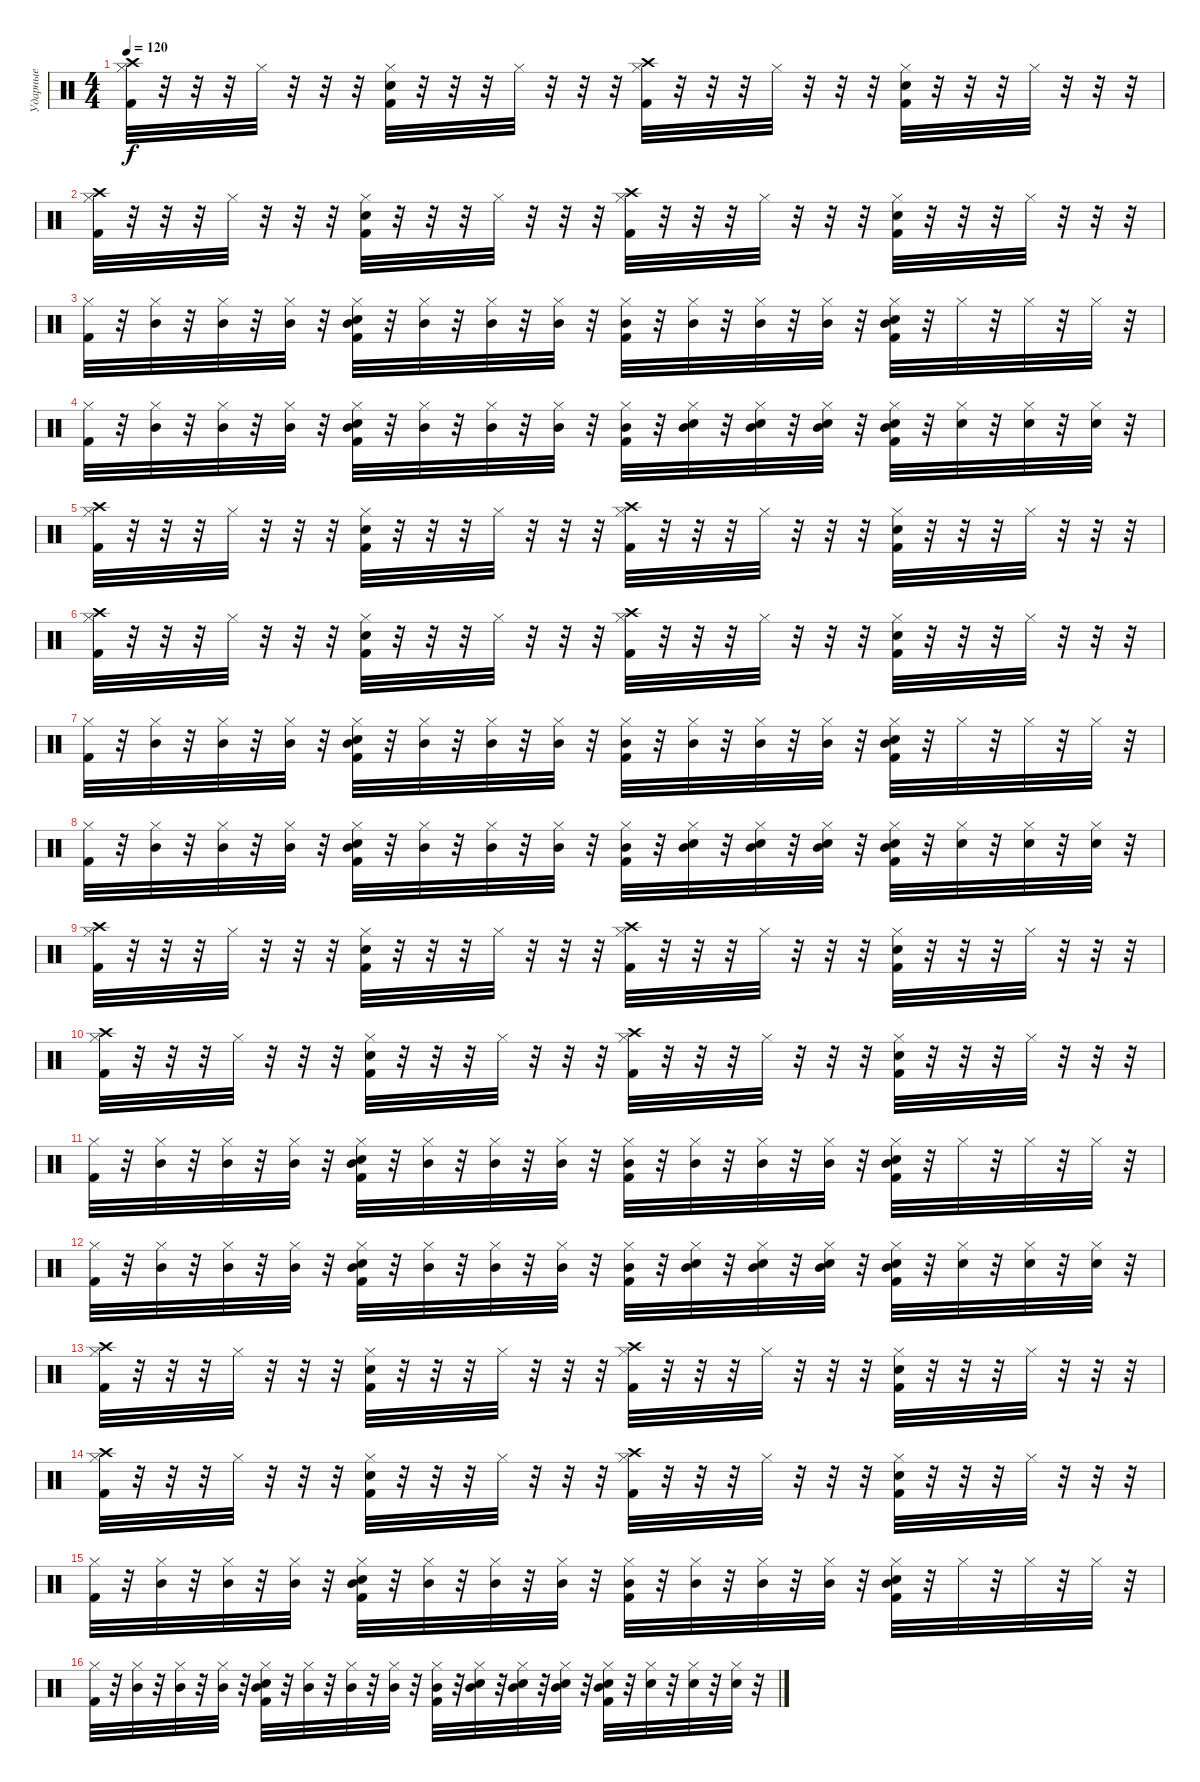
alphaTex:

\track ("Ударные" "Ударные") {instrument percussion}
\staff {score}
\articulation defaults
\ts (4 4)
\tempo 120
\clef neutral
\ks c
("Crash high (hit)" "Hi-Hat (closed)" "Kick (hit) 2").32{dy f} r.32 r.32 r.32 "Hi-Hat (closed)".32 r.32 r.32 r.32 ("Hi-Hat (closed)" "Kick (hit) 2" "Snare (hit) 2").32 r.32 r.32 r.32 "Hi-Hat (closed)".32 r.32 r.32 r.32 ("Crash high (hit)" "Hi-Hat (closed)" "Kick (hit) 2").32 r.32 r.32 r.32 "Hi-Hat (closed)".32 r.32 r.32 r.32 ("Snare (hit) 2" "Kick (hit) 2" "Hi-Hat (closed)").32 r.32 r.32 r.32 "Hi-Hat (closed)".32 r.32 r.32 r.32 |
("Crash high (hit)" "Hi-Hat (closed)" "Kick (hit) 2").32 r.32 r.32 r.32 "Hi-Hat (closed)".32 r.32 r.32 r.32 ("Hi-Hat (closed)" "Kick (hit) 2" "Snare (hit) 2").32 r.32 r.32 r.32 "Hi-Hat (closed)".32 r.32 r.32 r.32 ("Crash high (hit)" "Hi-Hat (closed)" "Kick (hit) 2").32 r.32 r.32 r.32 "Hi-Hat (closed)".32 r.32 r.32 r.32 ("Snare (hit) 2" "Kick (hit) 2" "Hi-Hat (closed)").32 r.32 r.32 r.32 "Hi-Hat (closed)".32 r.32 r.32 r.32 |
("Hi-Hat (closed)" "Kick (hit) 2").32 r.32 ("Hi-Hat (closed)" "Mid Tom (hit)").32 r.32 ("Hi-Hat (closed)" "Mid Tom (hit)").32 r.32 ("Hi-Hat (closed)" "Mid Tom (hit)").32 r.32 ("Hi-Hat (closed)" "Kick (hit) 2" "Snare (hit) 2" "Mid Tom (hit)").32 r.32 ("Hi-Hat (closed)" "Mid Tom (hit)").32 r.32 ("Hi-Hat (closed)" "Mid Tom (hit)").32 r.32 ("Hi-Hat (closed)" "Mid Tom (hit)").32 r.32 ("Hi-Hat (closed)" "Kick (hit) 2" "Mid Tom (hit)").32 r.32 ("Hi-Hat (closed)" "Mid Tom (hit)").32 r.32 ("Hi-Hat (closed)" "Mid Tom (hit)").32 r.32 ("Hi-Hat (closed)" "Mid Tom (hit)").32 r.32 ("Snare (hit) 2" "Kick (hit) 2" "Hi-Hat (closed)" "Mid Tom (hit)").32 r.32 "Hi-Hat (closed)".32 r.32 "Hi-Hat (closed)".32 r.32 "Hi-Hat (closed)".32 r.32 |
("Hi-Hat (closed)" "Kick (hit) 2").32 r.32 ("Hi-Hat (closed)" "Mid Tom (hit)").32 r.32 ("Hi-Hat (closed)" "Mid Tom (hit)").32 r.32 ("Hi-Hat (closed)" "Mid Tom (hit)").32 r.32 ("Hi-Hat (closed)" "Kick (hit) 2" "Snare (hit) 2" "Mid Tom (hit)").32 r.32 ("Hi-Hat (closed)" "Mid Tom (hit)").32 r.32 ("Hi-Hat (closed)" "Mid Tom (hit)").32 r.32 ("Hi-Hat (closed)" "Mid Tom (hit)").32 r.32 ("Hi-Hat (closed)" "Kick (hit) 2" "Mid Tom (hit)").32 r.32 ("Snare (hit) 2" "Hi-Hat (closed)" "Mid Tom (hit)").32 r.32 ("Snare (hit) 2" "Hi-Hat (closed)" "Mid Tom (hit)").32 r.32 ("Snare (hit) 2" "Hi-Hat (closed)" "Mid Tom (hit)").32 r.32 ("Snare (hit) 2" "Kick (hit) 2" "Hi-Hat (closed)" "Mid Tom (hit)").32 r.32 ("Snare (hit) 2" "Hi-Hat (closed)").32 r.32 ("Snare (hit) 2" "Hi-Hat (closed)").32 r.32 ("Snare (hit) 2" "Hi-Hat (closed)").32 r.32 |
("Crash high (hit)" "Hi-Hat (closed)" "Kick (hit) 2").32 r.32 r.32 r.32 "Hi-Hat (closed)".32 r.32 r.32 r.32 ("Hi-Hat (closed)" "Kick (hit) 2" "Snare (hit) 2").32 r.32 r.32 r.32 "Hi-Hat (closed)".32 r.32 r.32 r.32 ("Crash high (hit)" "Hi-Hat (closed)" "Kick (hit) 2").32 r.32 r.32 r.32 "Hi-Hat (closed)".32 r.32 r.32 r.32 ("Snare (hit) 2" "Kick (hit) 2" "Hi-Hat (closed)").32 r.32 r.32 r.32 "Hi-Hat (closed)".32 r.32 r.32 r.32 |
("Crash high (hit)" "Hi-Hat (closed)" "Kick (hit) 2").32 r.32 r.32 r.32 "Hi-Hat (closed)".32 r.32 r.32 r.32 ("Hi-Hat (closed)" "Kick (hit) 2" "Snare (hit) 2").32 r.32 r.32 r.32 "Hi-Hat (closed)".32 r.32 r.32 r.32 ("Crash high (hit)" "Hi-Hat (closed)" "Kick (hit) 2").32 r.32 r.32 r.32 "Hi-Hat (closed)".32 r.32 r.32 r.32 ("Snare (hit) 2" "Kick (hit) 2" "Hi-Hat (closed)").32 r.32 r.32 r.32 "Hi-Hat (closed)".32 r.32 r.32 r.32 |
("Hi-Hat (closed)" "Kick (hit) 2").32 r.32 ("Hi-Hat (closed)" "Mid Tom (hit)").32 r.32 ("Hi-Hat (closed)" "Mid Tom (hit)").32 r.32 ("Hi-Hat (closed)" "Mid Tom (hit)").32 r.32 ("Hi-Hat (closed)" "Kick (hit) 2" "Snare (hit) 2" "Mid Tom (hit)").32 r.32 ("Hi-Hat (closed)" "Mid Tom (hit)").32 r.32 ("Hi-Hat (closed)" "Mid Tom (hit)").32 r.32 ("Hi-Hat (closed)" "Mid Tom (hit)").32 r.32 ("Hi-Hat (closed)" "Kick (hit) 2" "Mid Tom (hit)").32 r.32 ("Hi-Hat (closed)" "Mid Tom (hit)").32 r.32 ("Hi-Hat (closed)" "Mid Tom (hit)").32 r.32 ("Hi-Hat (closed)" "Mid Tom (hit)").32 r.32 ("Snare (hit) 2" "Kick (hit) 2" "Hi-Hat (closed)" "Mid Tom (hit)").32 r.32 "Hi-Hat (closed)".32 r.32 "Hi-Hat (closed)".32 r.32 "Hi-Hat (closed)".32 r.32 |
("Hi-Hat (closed)" "Kick (hit) 2").32 r.32 ("Hi-Hat (closed)" "Mid Tom (hit)").32 r.32 ("Hi-Hat (closed)" "Mid Tom (hit)").32 r.32 ("Hi-Hat (closed)" "Mid Tom (hit)").32 r.32 ("Hi-Hat (closed)" "Kick (hit) 2" "Snare (hit) 2" "Mid Tom (hit)").32 r.32 ("Hi-Hat (closed)" "Mid Tom (hit)").32 r.32 ("Hi-Hat (closed)" "Mid Tom (hit)").32 r.32 ("Hi-Hat (closed)" "Mid Tom (hit)").32 r.32 ("Hi-Hat (closed)" "Kick (hit) 2" "Mid Tom (hit)").32 r.32 ("Snare (hit) 2" "Hi-Hat (closed)" "Mid Tom (hit)").32 r.32 ("Snare (hit) 2" "Hi-Hat (closed)" "Mid Tom (hit)").32 r.32 ("Snare (hit) 2" "Hi-Hat (closed)" "Mid Tom (hit)").32 r.32 ("Snare (hit) 2" "Kick (hit) 2" "Hi-Hat (closed)" "Mid Tom (hit)").32 r.32 ("Snare (hit) 2" "Hi-Hat (closed)").32 r.32 ("Snare (hit) 2" "Hi-Hat (closed)").32 r.32 ("Snare (hit) 2" "Hi-Hat (closed)").32 r.32 |
("Crash high (hit)" "Hi-Hat (closed)" "Kick (hit) 2").32 r.32 r.32 r.32 "Hi-Hat (closed)".32 r.32 r.32 r.32 ("Hi-Hat (closed)" "Kick (hit) 2" "Snare (hit) 2").32 r.32 r.32 r.32 "Hi-Hat (closed)".32 r.32 r.32 r.32 ("Crash high (hit)" "Hi-Hat (closed)" "Kick (hit) 2").32 r.32 r.32 r.32 "Hi-Hat (closed)".32 r.32 r.32 r.32 ("Snare (hit) 2" "Kick (hit) 2" "Hi-Hat (closed)").32 r.32 r.32 r.32 "Hi-Hat (closed)".32 r.32 r.32 r.32 |
("Crash high (hit)" "Hi-Hat (closed)" "Kick (hit) 2").32 r.32 r.32 r.32 "Hi-Hat (closed)".32 r.32 r.32 r.32 ("Hi-Hat (closed)" "Kick (hit) 2" "Snare (hit) 2").32 r.32 r.32 r.32 "Hi-Hat (closed)".32 r.32 r.32 r.32 ("Crash high (hit)" "Hi-Hat (closed)" "Kick (hit) 2").32 r.32 r.32 r.32 "Hi-Hat (closed)".32 r.32 r.32 r.32 ("Snare (hit) 2" "Kick (hit) 2" "Hi-Hat (closed)").32 r.32 r.32 r.32 "Hi-Hat (closed)".32 r.32 r.32 r.32 |
("Hi-Hat (closed)" "Kick (hit) 2").32 r.32 ("Hi-Hat (closed)" "Mid Tom (hit)").32 r.32 ("Hi-Hat (closed)" "Mid Tom (hit)").32 r.32 ("Hi-Hat (closed)" "Mid Tom (hit)").32 r.32 ("Hi-Hat (closed)" "Kick (hit) 2" "Snare (hit) 2" "Mid Tom (hit)").32 r.32 ("Hi-Hat (closed)" "Mid Tom (hit)").32 r.32 ("Hi-Hat (closed)" "Mid Tom (hit)").32 r.32 ("Hi-Hat (closed)" "Mid Tom (hit)").32 r.32 ("Hi-Hat (closed)" "Kick (hit) 2" "Mid Tom (hit)").32 r.32 ("Hi-Hat (closed)" "Mid Tom (hit)").32 r.32 ("Hi-Hat (closed)" "Mid Tom (hit)").32 r.32 ("Hi-Hat (closed)" "Mid Tom (hit)").32 r.32 ("Snare (hit) 2" "Kick (hit) 2" "Hi-Hat (closed)" "Mid Tom (hit)").32 r.32 "Hi-Hat (closed)".32 r.32 "Hi-Hat (closed)".32 r.32 "Hi-Hat (closed)".32 r.32 |
("Hi-Hat (closed)" "Kick (hit) 2").32 r.32 ("Hi-Hat (closed)" "Mid Tom (hit)").32 r.32 ("Hi-Hat (closed)" "Mid Tom (hit)").32 r.32 ("Hi-Hat (closed)" "Mid Tom (hit)").32 r.32 ("Hi-Hat (closed)" "Kick (hit) 2" "Snare (hit) 2" "Mid Tom (hit)").32 r.32 ("Hi-Hat (closed)" "Mid Tom (hit)").32 r.32 ("Hi-Hat (closed)" "Mid Tom (hit)").32 r.32 ("Hi-Hat (closed)" "Mid Tom (hit)").32 r.32 ("Hi-Hat (closed)" "Kick (hit) 2" "Mid Tom (hit)").32 r.32 ("Snare (hit) 2" "Hi-Hat (closed)" "Mid Tom (hit)").32 r.32 ("Snare (hit) 2" "Hi-Hat (closed)" "Mid Tom (hit)").32 r.32 ("Snare (hit) 2" "Hi-Hat (closed)" "Mid Tom (hit)").32 r.32 ("Snare (hit) 2" "Kick (hit) 2" "Hi-Hat (closed)" "Mid Tom (hit)").32 r.32 ("Snare (hit) 2" "Hi-Hat (closed)").32 r.32 ("Snare (hit) 2" "Hi-Hat (closed)").32 r.32 ("Snare (hit) 2" "Hi-Hat (closed)").32 r.32 |
("Crash high (hit)" "Hi-Hat (closed)" "Kick (hit) 2").32 r.32 r.32 r.32 "Hi-Hat (closed)".32 r.32 r.32 r.32 ("Hi-Hat (closed)" "Kick (hit) 2" "Snare (hit) 2").32 r.32 r.32 r.32 "Hi-Hat (closed)".32 r.32 r.32 r.32 ("Crash high (hit)" "Hi-Hat (closed)" "Kick (hit) 2").32 r.32 r.32 r.32 "Hi-Hat (closed)".32 r.32 r.32 r.32 ("Snare (hit) 2" "Kick (hit) 2" "Hi-Hat (closed)").32 r.32 r.32 r.32 "Hi-Hat (closed)".32 r.32 r.32 r.32 |
("Crash high (hit)" "Hi-Hat (closed)" "Kick (hit) 2").32 r.32 r.32 r.32 "Hi-Hat (closed)".32 r.32 r.32 r.32 ("Hi-Hat (closed)" "Kick (hit) 2" "Snare (hit) 2").32 r.32 r.32 r.32 "Hi-Hat (closed)".32 r.32 r.32 r.32 ("Crash high (hit)" "Hi-Hat (closed)" "Kick (hit) 2").32 r.32 r.32 r.32 "Hi-Hat (closed)".32 r.32 r.32 r.32 ("Snare (hit) 2" "Kick (hit) 2" "Hi-Hat (closed)").32 r.32 r.32 r.32 "Hi-Hat (closed)".32 r.32 r.32 r.32 |
("Hi-Hat (closed)" "Kick (hit) 2").32 r.32 ("Hi-Hat (closed)" "Mid Tom (hit)").32 r.32 ("Hi-Hat (closed)" "Mid Tom (hit)").32 r.32 ("Hi-Hat (closed)" "Mid Tom (hit)").32 r.32 ("Hi-Hat (closed)" "Kick (hit) 2" "Snare (hit) 2" "Mid Tom (hit)").32 r.32 ("Hi-Hat (closed)" "Mid Tom (hit)").32 r.32 ("Hi-Hat (closed)" "Mid Tom (hit)").32 r.32 ("Hi-Hat (closed)" "Mid Tom (hit)").32 r.32 ("Hi-Hat (closed)" "Kick (hit) 2" "Mid Tom (hit)").32 r.32 ("Hi-Hat (closed)" "Mid Tom (hit)").32 r.32 ("Hi-Hat (closed)" "Mid Tom (hit)").32 r.32 ("Hi-Hat (closed)" "Mid Tom (hit)").32 r.32 ("Snare (hit) 2" "Kick (hit) 2" "Hi-Hat (closed)" "Mid Tom (hit)").32 r.32 "Hi-Hat (closed)".32 r.32 "Hi-Hat (closed)".32 r.32 "Hi-Hat (closed)".32 r.32 |
("Hi-Hat (closed)" "Kick (hit) 2").32 r.32 ("Hi-Hat (closed)" "Mid Tom (hit)").32 r.32 ("Hi-Hat (closed)" "Mid Tom (hit)").32 r.32 ("Hi-Hat (closed)" "Mid Tom (hit)").32 r.32 ("Hi-Hat (closed)" "Kick (hit) 2" "Snare (hit) 2" "Mid Tom (hit)").32 r.32 ("Hi-Hat (closed)" "Mid Tom (hit)").32 r.32 ("Hi-Hat (closed)" "Mid Tom (hit)").32 r.32 ("Hi-Hat (closed)" "Mid Tom (hit)").32 r.32 ("Hi-Hat (closed)" "Kick (hit) 2" "Mid Tom (hit)").32 r.32 ("Snare (hit) 2" "Hi-Hat (closed)" "Mid Tom (hit)").32 r.32 ("Snare (hit) 2" "Hi-Hat (closed)" "Mid Tom (hit)").32 r.32 ("Snare (hit) 2" "Hi-Hat (closed)" "Mid Tom (hit)").32 r.32 ("Snare (hit) 2" "Kick (hit) 2" "Hi-Hat (closed)" "Mid Tom (hit)").32 r.32 ("Snare (hit) 2" "Hi-Hat (closed)").32 r.32 ("Snare (hit) 2" "Hi-Hat (closed)").32 r.32 ("Snare (hit) 2" "Hi-Hat (closed)").32 r.32
